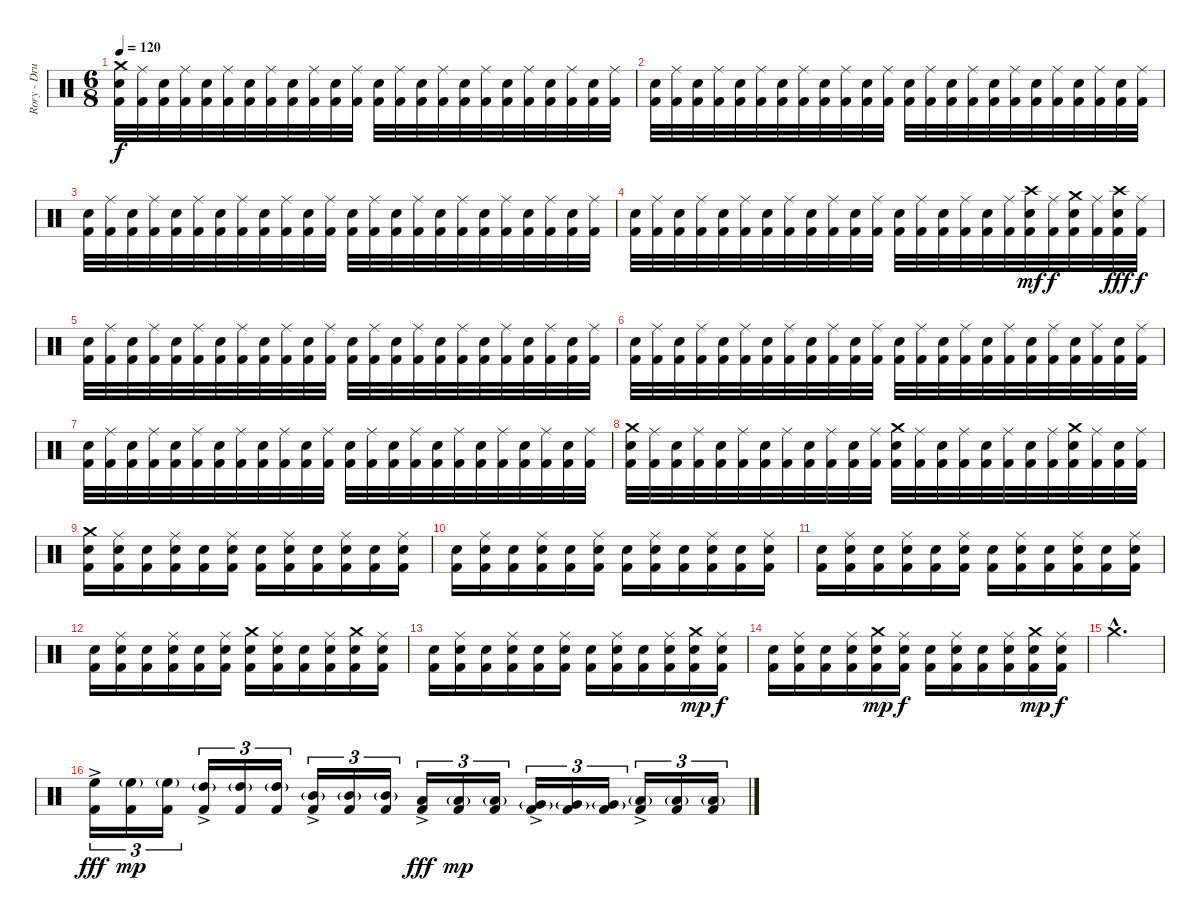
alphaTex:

\track ("Rory - Drums" "Rory - Dru") {instrument percussion}
\staff {score}
\articulation defaults
\ts (6 8)
\tempo 120
\clef neutral
\ks c
("Kick (hit) 2" "Electric Snare (hit)" "Crash medium (hit)").32{dy f} ("Kick (hit) 2" "Ride (middle)").32 ("Kick (hit) 2" "Electric Snare (hit)").32 ("Kick (hit) 2" "Ride (middle)").32 ("Kick (hit) 2" "Electric Snare (hit)").32 ("Kick (hit) 2" "Ride (middle)").32 ("Kick (hit) 2" "Electric Snare (hit)").32 ("Kick (hit) 2" "Ride (middle)").32 ("Kick (hit) 2" "Electric Snare (hit)").32 ("Kick (hit) 2" "Ride (middle)").32 ("Kick (hit) 2" "Electric Snare (hit)").32 ("Kick (hit) 2" "Ride (middle)").32 ("Kick (hit) 2" "Electric Snare (hit)").32 ("Kick (hit) 2" "Ride (middle)").32 ("Kick (hit) 2" "Electric Snare (hit)").32 ("Kick (hit) 2" "Ride (middle)").32 ("Kick (hit) 2" "Electric Snare (hit)").32 ("Kick (hit) 2" "Ride (middle)").32 ("Kick (hit) 2" "Electric Snare (hit)").32 ("Kick (hit) 2" "Ride (middle)").32 ("Kick (hit) 2" "Electric Snare (hit)").32 ("Kick (hit) 2" "Ride (middle)").32 ("Kick (hit) 2" "Electric Snare (hit)").32 ("Kick (hit) 2" "Ride (middle)").32 |
("Kick (hit) 2" "Electric Snare (hit)").32 ("Kick (hit) 2" "Ride (middle)").32 ("Kick (hit) 2" "Electric Snare (hit)").32 ("Kick (hit) 2" "Ride (middle)").32 ("Kick (hit) 2" "Electric Snare (hit)").32 ("Kick (hit) 2" "Ride (middle)").32 ("Kick (hit) 2" "Electric Snare (hit)").32 ("Kick (hit) 2" "Ride (middle)").32 ("Kick (hit) 2" "Electric Snare (hit)").32 ("Kick (hit) 2" "Ride (middle)").32 ("Kick (hit) 2" "Electric Snare (hit)").32 ("Kick (hit) 2" "Ride (middle)").32 ("Kick (hit) 2" "Electric Snare (hit)").32 ("Kick (hit) 2" "Ride (middle)").32 ("Kick (hit) 2" "Electric Snare (hit)").32 ("Kick (hit) 2" "Ride (middle)").32 ("Kick (hit) 2" "Electric Snare (hit)").32 ("Kick (hit) 2" "Ride (middle)").32 ("Kick (hit) 2" "Electric Snare (hit)").32 ("Kick (hit) 2" "Ride (middle)").32 ("Kick (hit) 2" "Electric Snare (hit)").32 ("Kick (hit) 2" "Ride (middle)").32 ("Kick (hit) 2" "Electric Snare (hit)").32 ("Kick (hit) 2" "Ride (middle)").32 |
("Kick (hit) 2" "Electric Snare (hit)").32 ("Kick (hit) 2" "Ride (middle)").32 ("Kick (hit) 2" "Electric Snare (hit)").32 ("Kick (hit) 2" "Ride (middle)").32 ("Kick (hit) 2" "Electric Snare (hit)").32 ("Kick (hit) 2" "Ride (middle)").32 ("Kick (hit) 2" "Electric Snare (hit)").32 ("Kick (hit) 2" "Ride (middle)").32 ("Kick (hit) 2" "Electric Snare (hit)").32 ("Kick (hit) 2" "Ride (middle)").32 ("Kick (hit) 2" "Electric Snare (hit)").32 ("Kick (hit) 2" "Ride (middle)").32 ("Kick (hit) 2" "Electric Snare (hit)").32 ("Kick (hit) 2" "Ride (middle)").32 ("Kick (hit) 2" "Electric Snare (hit)").32 ("Kick (hit) 2" "Ride (middle)").32 ("Kick (hit) 2" "Electric Snare (hit)").32 ("Kick (hit) 2" "Ride (middle)").32 ("Kick (hit) 2" "Electric Snare (hit)").32 ("Kick (hit) 2" "Ride (middle)").32 ("Kick (hit) 2" "Electric Snare (hit)").32 ("Kick (hit) 2" "Ride (middle)").32 ("Kick (hit) 2" "Electric Snare (hit)").32 ("Kick (hit) 2" "Ride (middle)").32 |
("Kick (hit) 2" "Electric Snare (hit)").32 ("Kick (hit) 2" "Ride (middle)").32 ("Kick (hit) 2" "Electric Snare (hit)").32 ("Kick (hit) 2" "Ride (middle)").32 ("Kick (hit) 2" "Electric Snare (hit)").32 ("Kick (hit) 2" "Ride (middle)").32 ("Kick (hit) 2" "Electric Snare (hit)").32 ("Kick (hit) 2" "Ride (middle)").32 ("Kick (hit) 2" "Electric Snare (hit)").32 ("Kick (hit) 2" "Ride (middle)").32 ("Kick (hit) 2" "Electric Snare (hit)").32 ("Kick (hit) 2" "Ride (middle)").32 ("Kick (hit) 2" "Electric Snare (hit)").32 ("Kick (hit) 2" "Ride (middle)").32 ("Kick (hit) 2" "Electric Snare (hit)").32 ("Kick (hit) 2" "Ride (middle)").32 ("Kick (hit) 2" "Electric Snare (hit)").32 ("Kick (hit) 2" "Ride (middle)").32 ("Kick (hit) 2" "Crash high (hit)" "Electric Snare (hit)").32{dy mf} ("Kick (hit) 2" "Ride (middle)").32{dy f} ("Kick (hit) 2" "Crash medium (hit)" "Electric Snare (hit)").32 ("Kick (hit) 2" "Ride (middle)").32 ("Kick (hit) 2" "Crash high (hit)" "Electric Snare (hit)").32{dy fff} ("Kick (hit) 2" "Ride (middle)").32{dy f} |
("Kick (hit) 2" "Electric Snare (hit)").32 ("Kick (hit) 2" "Ride (middle)").32 ("Kick (hit) 2" "Electric Snare (hit)").32 ("Kick (hit) 2" "Ride (middle)").32 ("Kick (hit) 2" "Electric Snare (hit)").32 ("Kick (hit) 2" "Ride (middle)").32 ("Kick (hit) 2" "Electric Snare (hit)").32 ("Kick (hit) 2" "Ride (middle)").32 ("Kick (hit) 2" "Electric Snare (hit)").32 ("Kick (hit) 2" "Ride (middle)").32 ("Kick (hit) 2" "Electric Snare (hit)").32 ("Kick (hit) 2" "Ride (middle)").32 ("Kick (hit) 2" "Electric Snare (hit)").32 ("Kick (hit) 2" "Ride (middle)").32 ("Kick (hit) 2" "Electric Snare (hit)").32 ("Kick (hit) 2" "Ride (middle)").32 ("Kick (hit) 2" "Electric Snare (hit)").32 ("Kick (hit) 2" "Ride (middle)").32 ("Kick (hit) 2" "Electric Snare (hit)").32 ("Kick (hit) 2" "Ride (middle)").32 ("Kick (hit) 2" "Electric Snare (hit)").32 ("Kick (hit) 2" "Ride (middle)").32 ("Kick (hit) 2" "Electric Snare (hit)").32 ("Kick (hit) 2" "Ride (middle)").32 |
("Kick (hit) 2" "Electric Snare (hit)").32 ("Kick (hit) 2" "Ride (middle)").32 ("Kick (hit) 2" "Electric Snare (hit)").32 ("Kick (hit) 2" "Ride (middle)").32 ("Kick (hit) 2" "Electric Snare (hit)").32 ("Kick (hit) 2" "Ride (middle)").32 ("Kick (hit) 2" "Electric Snare (hit)").32 ("Kick (hit) 2" "Ride (middle)").32 ("Kick (hit) 2" "Electric Snare (hit)").32 ("Kick (hit) 2" "Ride (middle)").32 ("Kick (hit) 2" "Electric Snare (hit)").32 ("Kick (hit) 2" "Ride (middle)").32 ("Kick (hit) 2" "Electric Snare (hit)").32 ("Kick (hit) 2" "Ride (middle)").32 ("Kick (hit) 2" "Electric Snare (hit)").32 ("Kick (hit) 2" "Ride (middle)").32 ("Kick (hit) 2" "Electric Snare (hit)").32 ("Kick (hit) 2" "Ride (middle)").32 ("Kick (hit) 2" "Electric Snare (hit)").32 ("Kick (hit) 2" "Ride (middle)").32 ("Kick (hit) 2" "Electric Snare (hit)").32 ("Kick (hit) 2" "Ride (middle)").32 ("Kick (hit) 2" "Electric Snare (hit)").32 ("Kick (hit) 2" "Ride (middle)").32 |
("Kick (hit) 2" "Electric Snare (hit)").32 ("Kick (hit) 2" "Ride (middle)").32 ("Kick (hit) 2" "Electric Snare (hit)").32 ("Kick (hit) 2" "Ride (middle)").32 ("Kick (hit) 2" "Electric Snare (hit)").32 ("Kick (hit) 2" "Ride (middle)").32 ("Kick (hit) 2" "Electric Snare (hit)").32 ("Kick (hit) 2" "Ride (middle)").32 ("Kick (hit) 2" "Electric Snare (hit)").32 ("Kick (hit) 2" "Ride (middle)").32 ("Kick (hit) 2" "Electric Snare (hit)").32 ("Kick (hit) 2" "Ride (middle)").32 ("Kick (hit) 2" "Electric Snare (hit)").32 ("Kick (hit) 2" "Ride (middle)").32 ("Kick (hit) 2" "Electric Snare (hit)").32 ("Kick (hit) 2" "Ride (middle)").32 ("Kick (hit) 2" "Electric Snare (hit)").32 ("Kick (hit) 2" "Ride (middle)").32 ("Kick (hit) 2" "Electric Snare (hit)").32 ("Kick (hit) 2" "Ride (middle)").32 ("Kick (hit) 2" "Electric Snare (hit)").32 ("Kick (hit) 2" "Ride (middle)").32 ("Kick (hit) 2" "Electric Snare (hit)").32 ("Kick (hit) 2" "Ride (middle)").32 |
("Kick (hit) 2" "Electric Snare (hit)" "Crash medium (hit)").32 ("Kick (hit) 2" "Ride (middle)").32 ("Kick (hit) 2" "Electric Snare (hit)").32 ("Kick (hit) 2" "Ride (middle)").32 ("Kick (hit) 2" "Electric Snare (hit)").32 ("Kick (hit) 2" "Ride (middle)").32 ("Kick (hit) 2" "Electric Snare (hit)").32 ("Kick (hit) 2" "Ride (middle)").32 ("Kick (hit) 2" "Electric Snare (hit)").32 ("Kick (hit) 2" "Ride (middle)").32 ("Kick (hit) 2" "Electric Snare (hit)").32 ("Kick (hit) 2" "Ride (middle)").32 ("Kick (hit) 2" "Crash medium (hit)" "Electric Snare (hit)").32 ("Kick (hit) 2" "Ride (middle)").32 ("Kick (hit) 2" "Electric Snare (hit)").32 ("Kick (hit) 2" "Ride (middle)").32 ("Kick (hit) 2" "Electric Snare (hit)").32 ("Kick (hit) 2" "Ride (middle)").32 ("Kick (hit) 2" "Electric Snare (hit)").32 ("Kick (hit) 2" "Ride (middle)").32 ("Kick (hit) 2" "Crash medium (hit)" "Electric Snare (hit)").32 ("Kick (hit) 2" "Ride (middle)").32 ("Kick (hit) 2" "Electric Snare (hit)").32 ("Kick (hit) 2" "Ride (middle)").32 |
("Kick (hit) 2" "Electric Snare (hit)" "Crash medium (hit)").16 ("Kick (hit) 2" "Electric Snare (hit)" "Ride (middle)").16 ("Kick (hit) 2" "Electric Snare (hit)").16 ("Kick (hit) 2" "Electric Snare (hit)" "Ride (middle)").16 ("Kick (hit) 2" "Electric Snare (hit)").16 ("Kick (hit) 2" "Electric Snare (hit)" "Ride (middle)").16 ("Kick (hit) 2" "Electric Snare (hit)").16 ("Kick (hit) 2" "Electric Snare (hit)" "Ride (middle)").16 ("Kick (hit) 2" "Electric Snare (hit)").16 ("Kick (hit) 2" "Electric Snare (hit)" "Ride (middle)").16 ("Kick (hit) 2" "Electric Snare (hit)").16 ("Kick (hit) 2" "Electric Snare (hit)" "Ride (middle)").16 |
("Kick (hit) 2" "Electric Snare (hit)").16 ("Kick (hit) 2" "Electric Snare (hit)" "Ride (middle)").16 ("Kick (hit) 2" "Electric Snare (hit)").16 ("Kick (hit) 2" "Electric Snare (hit)" "Ride (middle)").16 ("Kick (hit) 2" "Electric Snare (hit)").16 ("Kick (hit) 2" "Electric Snare (hit)" "Ride (middle)").16 ("Kick (hit) 2" "Electric Snare (hit)").16 ("Kick (hit) 2" "Electric Snare (hit)" "Ride (middle)").16 ("Kick (hit) 2" "Electric Snare (hit)").16 ("Kick (hit) 2" "Electric Snare (hit)" "Ride (middle)").16 ("Kick (hit) 2" "Electric Snare (hit)").16 ("Kick (hit) 2" "Electric Snare (hit)" "Ride (middle)").16 |
("Kick (hit) 2" "Electric Snare (hit)").16 ("Kick (hit) 2" "Electric Snare (hit)" "Ride (middle)").16 ("Kick (hit) 2" "Electric Snare (hit)").16 ("Kick (hit) 2" "Electric Snare (hit)" "Ride (middle)").16 ("Kick (hit) 2" "Electric Snare (hit)").16 ("Kick (hit) 2" "Electric Snare (hit)" "Ride (middle)").16 ("Kick (hit) 2" "Electric Snare (hit)").16 ("Kick (hit) 2" "Electric Snare (hit)" "Ride (middle)").16 ("Kick (hit) 2" "Electric Snare (hit)").16 ("Kick (hit) 2" "Electric Snare (hit)" "Ride (middle)").16 ("Kick (hit) 2" "Electric Snare (hit)").16 ("Kick (hit) 2" "Electric Snare (hit)" "Ride (middle)").16 |
("Kick (hit) 2" "Electric Snare (hit)").16 ("Kick (hit) 2" "Electric Snare (hit)" "Ride (middle)").16 ("Kick (hit) 2" "Electric Snare (hit)").16 ("Kick (hit) 2" "Electric Snare (hit)" "Ride (middle)").16 ("Kick (hit) 2" "Electric Snare (hit)").16 ("Kick (hit) 2" "Electric Snare (hit)" "Ride (middle)").16 ("Kick (hit) 2" "Crash medium (hit)" "Electric Snare (hit)").16 ("Kick (hit) 2" "Electric Snare (hit)" "Ride (middle)").16 ("Kick (hit) 2" "Electric Snare (hit)").16 ("Kick (hit) 2" "Electric Snare (hit)" "Ride (middle)").16 ("Kick (hit) 2" "Crash medium (hit)" "Electric Snare (hit)").16 ("Kick (hit) 2" "Electric Snare (hit)" "Ride (middle)").16 |
("Kick (hit) 2" "Electric Snare (hit)").16 ("Kick (hit) 2" "Electric Snare (hit)" "Ride (middle)").16 ("Kick (hit) 2" "Electric Snare (hit)").16 ("Kick (hit) 2" "Electric Snare (hit)" "Ride (middle)").16 ("Kick (hit) 2" "Electric Snare (hit)").16 ("Kick (hit) 2" "Electric Snare (hit)" "Ride (middle)").16 ("Kick (hit) 2" "Electric Snare (hit)").16 ("Kick (hit) 2" "Electric Snare (hit)" "Ride (middle)").16 ("Kick (hit) 2" "Electric Snare (hit)").16 ("Kick (hit) 2" "Electric Snare (hit)" "Ride (middle)").16 ("Kick (hit) 2" "Crash medium (hit)" "Electric Snare (hit)").16{dy mp} ("Kick (hit) 2" "Electric Snare (hit)" "Ride (middle)").16{dy f} |
("Kick (hit) 2" "Electric Snare (hit)").16 ("Kick (hit) 2" "Electric Snare (hit)" "Ride (middle)").16 ("Kick (hit) 2" "Electric Snare (hit)").16 ("Kick (hit) 2" "Electric Snare (hit)" "Ride (middle)").16 ("Kick (hit) 2" "Crash medium (hit)" "Electric Snare (hit)").16{dy mp} ("Kick (hit) 2" "Electric Snare (hit)" "Ride (middle)").16{dy f} ("Kick (hit) 2" "Electric Snare (hit)").16 ("Kick (hit) 2" "Electric Snare (hit)" "Ride (middle)").16 ("Kick (hit) 2" "Electric Snare (hit)").16 ("Kick (hit) 2" "Electric Snare (hit)" "Ride (middle)").16 ("Kick (hit) 2" "Crash medium (hit)" "Electric Snare (hit)").16{dy mp} ("Kick (hit) 2" "Electric Snare (hit)" "Ride (middle)").16{dy f} |
"Crash medium (hit)"{hac}.2{d} |
("Kick (hit) 2" "High Floor Tom (hit)"{ac}).16{tu (3 2) dy fff} ("Kick (hit) 2" "High Floor Tom (hit)"{g}).16{tu (3 2) dy mp} ("Kick (hit) 2" "High Floor Tom (hit)"{g}).16{tu (3 2)} ("Kick (hit) 2" "High Tom (hit)"{g ac}).16{tu (3 2)} ("Kick (hit) 2" "High Tom (hit)"{g}).16{tu (3 2)} ("Kick (hit) 2" "High Tom (hit)"{g}).16{tu (3 2)} ("Kick (hit) 2" "Mid Tom (hit)"{g ac}).16{tu (3 2)} ("Kick (hit) 2" "Mid Tom (hit)"{g}).16{tu (3 2)} ("Kick (hit) 2" "Mid Tom (hit)"{g}).16{tu (3 2)} ("Kick (hit) 2" "Low Tom (hit)"{ac}).16{tu (3 2) dy fff} ("Kick (hit) 2" "Low Tom (hit)"{g}).16{tu (3 2) dy mp} ("Kick (hit) 2" "Low Tom (hit)"{g}).16{tu (3 2)} ("Kick (hit) 2" "Very Low Tom (hit)"{g ac}).16{tu (3 2)} ("Kick (hit) 2" "Very Low Tom (hit)"{g}).16{tu (3 2)} ("Kick (hit) 2" "Very Low Tom (hit)"{g}).16{tu (3 2)} ("Kick (hit) 2" "Low Floor Tom (hit)"{g ac}).16{tu (3 2)} ("Kick (hit) 2" "Low Floor Tom (hit)"{g}).16{tu (3 2)} ("Kick (hit) 2" "Low Floor Tom (hit)"{g}).16{tu (3 2)}
